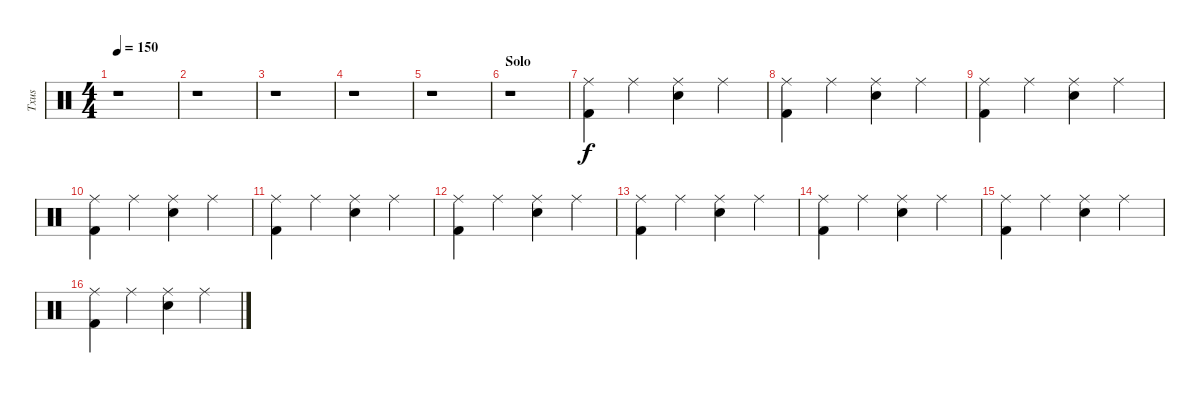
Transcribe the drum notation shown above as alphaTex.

\track ("Txus" "Txus") {instrument percussion}
\staff {score}
\articulation defaults
\ts (4 4)
\tempo 150
\clef neutral
\ks c
r.1{dy f} |
r.1 |
r.1 |
r.1 |
r.1 |
\section ("" "Solo")
r.1 |
("Ride (middle)" "Kick (hit) 2").4 "Ride (middle)".4 ("Snare (hit) 2" "Ride (middle)").4 "Ride (middle)".4 |
("Ride (middle)" "Kick (hit) 2").4 "Ride (middle)".4 ("Snare (hit) 2" "Ride (middle)").4 "Ride (middle)".4 |
("Ride (middle)" "Kick (hit) 2").4 "Ride (middle)".4 ("Snare (hit) 2" "Ride (middle)").4 "Ride (middle)".4 |
("Ride (middle)" "Kick (hit) 2").4 "Ride (middle)".4 ("Snare (hit) 2" "Ride (middle)").4 "Ride (middle)".4 |
("Ride (middle)" "Kick (hit) 2").4 "Ride (middle)".4 ("Snare (hit) 2" "Ride (middle)").4 "Ride (middle)".4 |
("Ride (middle)" "Kick (hit) 2").4 "Ride (middle)".4 ("Snare (hit) 2" "Ride (middle)").4 "Ride (middle)".4 |
("Ride (middle)" "Kick (hit) 2").4 "Ride (middle)".4 ("Snare (hit) 2" "Ride (middle)").4 "Ride (middle)".4 |
("Ride (middle)" "Kick (hit) 2").4 "Ride (middle)".4 ("Snare (hit) 2" "Ride (middle)").4 "Ride (middle)".4 |
("Ride (middle)" "Kick (hit) 2").4 "Ride (middle)".4 ("Snare (hit) 2" "Ride (middle)").4 "Ride (middle)".4 |
("Ride (middle)" "Kick (hit) 2").4 "Ride (middle)".4 ("Snare (hit) 2" "Ride (middle)").4 "Ride (middle)".4
